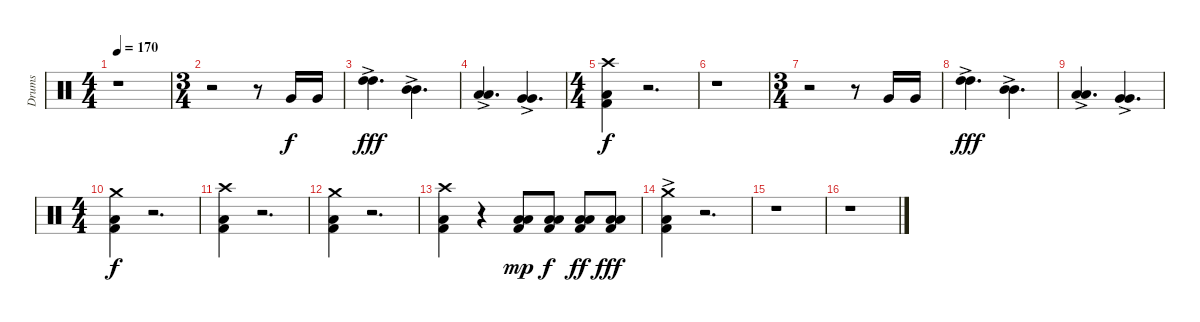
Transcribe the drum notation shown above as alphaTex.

\track ("Drums" "Drums") {instrument percussion}
\staff {score}
\articulation defaults
\ts (4 4)
\tempo 170
\clef neutral
\ks c
r.1{dy f} |
\ts (3 4)
r.2 r.8 "Very Low Tom (hit)".16 "Very Low Tom (hit)".16 |
("High Tom (hit)"{ac} "High Tom (hit)"{ac}).4{d dy fff} ("Mid Tom (hit)"{ac} "Mid Tom (hit)"{ac}).4{d} |
("Low Tom (hit)"{ac} "Low Tom (hit)"{ac}).4{d} ("Very Low Tom (hit)"{ac} "Very Low Tom (hit)"{ac}).4{d} |
\ts (4 4)
("Crash high (hit)" "Low Floor Tom (hit)" "Kick (hit) 2").4{dy f} r.2{d} |
r.1 |
\ts (3 4)
r.2 r.8 "Very Low Tom (hit)".16 "Very Low Tom (hit)".16 |
("High Tom (hit)"{ac} "High Tom (hit)"{ac}).4{d dy fff} ("Mid Tom (hit)"{ac} "Mid Tom (hit)"{ac}).4{d} |
("Low Tom (hit)"{ac} "Low Tom (hit)"{ac}).4{d} ("Very Low Tom (hit)"{ac} "Very Low Tom (hit)"{ac}).4{d} |
\ts (4 4)
("Crash medium (hit)" "Low Floor Tom (hit)" "Kick (hit) 2").4{dy f} r.2{d} |
("Crash high (hit)" "Low Floor Tom (hit)" "Kick (hit) 2").4 r.2{d} |
("Crash medium (hit)" "Low Floor Tom (hit)" "Kick (hit) 2").4 r.2{d} |
("Crash high (hit)" "Low Floor Tom (hit)" "Kick (hit) 2").4 r.4 ("Low Tom (hit)" "Low Tom (hit)" "Kick (hit) 2").8{dy mp} ("Low Tom (hit)" "Low Tom (hit)" "Kick (hit) 2").8{dy f} ("Low Tom (hit)" "Low Tom (hit)" "Kick (hit) 2").8{dy ff} ("Low Tom (hit)" "Low Tom (hit)" "Kick (hit) 2").8{dy fff} |
("Crash medium (hit)"{ac} "Low Floor Tom (hit)" "Kick (hit) 2"{ac}).4 r.2{d} |
r.1 |
r.1
